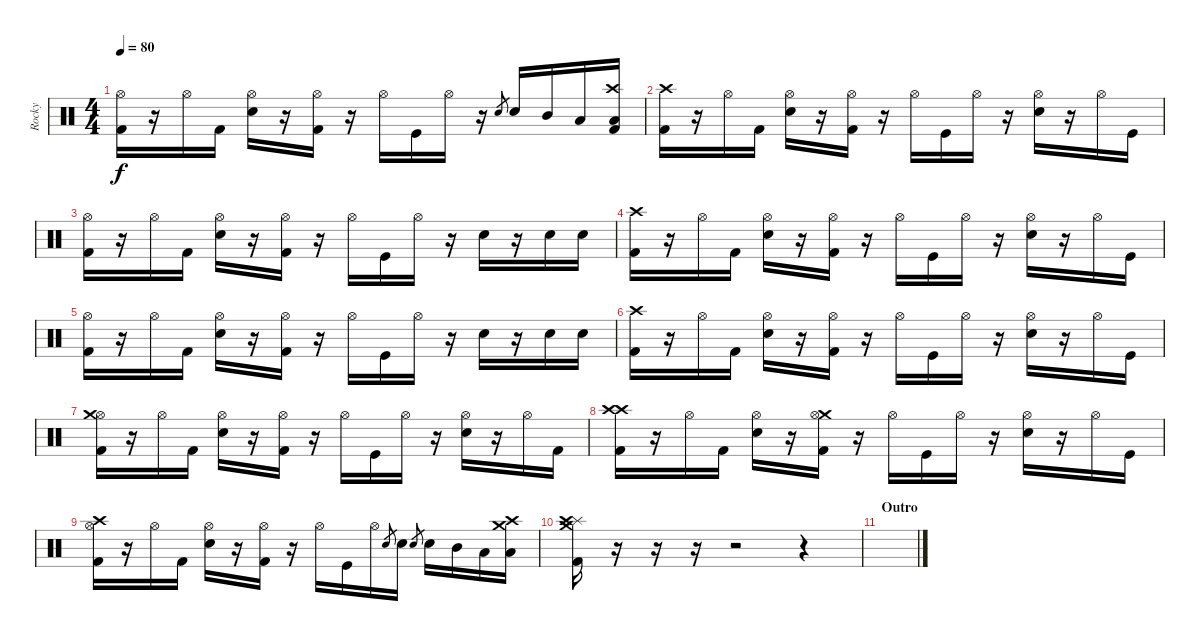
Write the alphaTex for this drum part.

\track ("Rocky" "Rocky") {instrument percussion}
\staff {score}
\articulation defaults
\ts (4 4)
\tempo 80
\clef neutral
\ks c
("Hi-Hat (open)" "Kick (hit) 2").16{dy f} r.16 "Hi-Hat (open)".16 "Kick (hit) 2".16 ("Hi-Hat (open)" "Electric Snare (hit)").16 r.16 ("Hi-Hat (open)" "Kick (hit) 2").16 r.16 "Hi-Hat (open)".16 "Kick (hit)".16 "Hi-Hat (open)".16 r.16 "Electric Snare (hit)".8{gr} "Electric Snare (hit)".16 "Mid Tom (hit)".16 "Low Tom (hit)".16 ("Crash high (hit)" "Kick (hit) 2" "Low Floor Tom (hit)").16 |
("Crash high (hit)" "Kick (hit) 2").16 r.16 "Hi-Hat (open)".16 "Kick (hit) 2".16 ("Hi-Hat (open)" "Electric Snare (hit)").16 r.16 ("Hi-Hat (open)" "Kick (hit) 2").16 r.16 "Hi-Hat (open)".16 "Kick (hit)".16 "Hi-Hat (open)".16 r.16 ("Hi-Hat (open)" "Electric Snare (hit)").16 r.16 "Hi-Hat (open)".16 "Kick (hit)".16 |
("Hi-Hat (open)" "Kick (hit) 2").16 r.16 "Hi-Hat (open)".16 "Kick (hit) 2".16 ("Hi-Hat (open)" "Electric Snare (hit)").16 r.16 ("Hi-Hat (open)" "Kick (hit) 2").16 r.16 "Hi-Hat (open)".16 "Kick (hit)".16 "Hi-Hat (open)".16 r.16 "Electric Snare (hit)".16 r.16 "Electric Snare (hit)".16 "Electric Snare (hit)".16 |
("Crash high (hit)" "Kick (hit) 2").16 r.16 "Hi-Hat (open)".16 "Kick (hit) 2".16 ("Hi-Hat (open)" "Electric Snare (hit)").16 r.16 ("Hi-Hat (open)" "Kick (hit) 2").16 r.16 "Hi-Hat (open)".16 "Kick (hit)".16 "Hi-Hat (open)".16 r.16 ("Hi-Hat (open)" "Electric Snare (hit)").16 r.16 "Hi-Hat (open)".16 "Kick (hit)".16 |
("Hi-Hat (open)" "Kick (hit) 2").16 r.16 "Hi-Hat (open)".16 "Kick (hit) 2".16 ("Hi-Hat (open)" "Electric Snare (hit)").16 r.16 ("Hi-Hat (open)" "Kick (hit) 2").16 r.16 "Hi-Hat (open)".16 "Kick (hit)".16 "Hi-Hat (open)".16 r.16 "Electric Snare (hit)".16 r.16 "Electric Snare (hit)".16 "Electric Snare (hit)".16 |
("Crash high (hit)" "Kick (hit) 2").16 r.16 "Hi-Hat (open)".16 "Kick (hit) 2".16 ("Hi-Hat (open)" "Electric Snare (hit)").16 r.16 ("Hi-Hat (open)" "Kick (hit) 2").16 r.16 "Hi-Hat (open)".16 "Kick (hit)".16 "Hi-Hat (open)".16 r.16 ("Hi-Hat (open)" "Electric Snare (hit)").16 r.16 "Hi-Hat (open)".16 "Kick (hit)".16 |
("Hi-Hat (open)" "Kick (hit) 2" "Crash medium (hit)").16 r.16 "Hi-Hat (open)".16 "Kick (hit) 2".16 ("Hi-Hat (open)" "Electric Snare (hit)").16 r.16 ("Hi-Hat (open)" "Kick (hit) 2").16 r.16 "Hi-Hat (open)".16 "Kick (hit)".16 "Hi-Hat (open)".16 r.16 ("Hi-Hat (open)" "Electric Snare (hit)").16 r.16 "Hi-Hat (open)".16 "Kick (hit) 2".16 |
("Crash high (hit)" "Kick (hit) 2" "Crash high (hit)").16 r.16 "Hi-Hat (open)".16 "Kick (hit) 2".16 ("Hi-Hat (open)" "Electric Snare (hit)").16 r.16 ("Crash medium (hit)" "Hi-Hat (open)" "Kick (hit) 2").16 r.16 "Hi-Hat (open)".16 "Kick (hit)".16 "Hi-Hat (open)".16 r.16 ("Hi-Hat (open)" "Electric Snare (hit)").16 r.16 "Hi-Hat (open)".16 "Kick (hit)".16 |
("Hi-Hat (open)" "Kick (hit) 2" "Crash high (hit)").16 r.16 "Hi-Hat (open)".16 "Kick (hit) 2".16 ("Hi-Hat (open)" "Electric Snare (hit)").16 r.16 ("Hi-Hat (open)" "Kick (hit) 2").16 r.16 "Hi-Hat (open)".16 "Kick (hit)".16 "Hi-Hat (open)".16 "Electric Snare (hit)".8{gr} "Electric Snare (hit)".16 "Electric Snare (hit)".8{gr} "Electric Snare (hit)".16 "Mid Tom (hit)".16 "Low Tom (hit)".16 ("Crash medium (hit)" "Crash high (hit)" "Low Floor Tom (hit)").16 |
("Splash (hit)" "Crash high (hit)" "Crash medium (hit)" "Kick (hit) 2").16 r.16 r.16 r.16 r.2 r.4 |
\section ("" "Outro")
